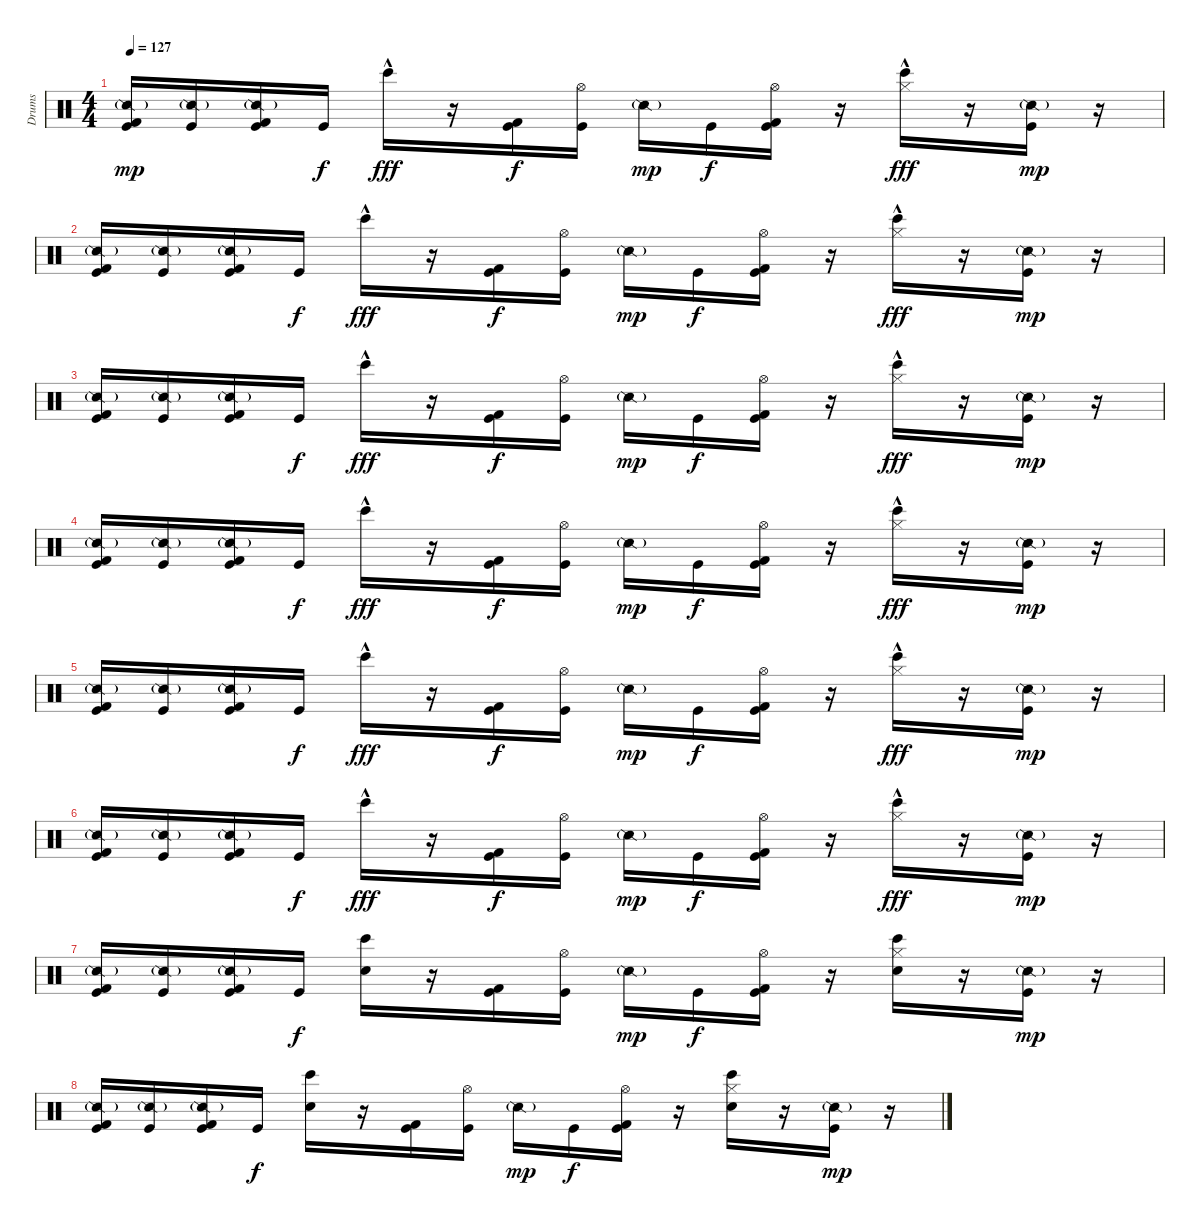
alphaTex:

\track ("Drums" "Drums") {instrument percussion}
\staff {score}
\articulation defaults
\ts (4 4)
\tempo 127
\clef neutral
\ks c
("Snare (side stick) 2"{g} "Kick (hit) 2" "Kick (hit)").16{dy mp} ("Snare (side stick) 2"{g} "Kick (hit)").16 ("Snare (side stick) 2"{g} "Kick (hit) 2" "Kick (hit)").16 "Kick (hit)".16{dy f} "Bongo High (hit)"{hac}.16{dy fff} r.16 ("Kick (hit) 2" "Kick (hit)").16{dy f} ("Hi-Hat (open)" "Kick (hit)").16 "Snare (side stick) 2"{g}.16{dy mp} "Kick (hit)".16{dy f} ("Hi-Hat (open)" "Kick (hit) 2" "Kick (hit)").16 r.16 ("Hi-Hat (closed)" "Bongo High (hit)"{hac}).16{dy fff} r.16 ("Snare (side stick) 2"{g} "Kick (hit)").16{dy mp} r.16 |
("Snare (side stick) 2"{g} "Kick (hit) 2" "Kick (hit)").16 ("Snare (side stick) 2"{g} "Kick (hit)").16 ("Snare (side stick) 2"{g} "Kick (hit) 2" "Kick (hit)").16 "Kick (hit)".16{dy f} "Bongo High (hit)"{hac}.16{dy fff} r.16 ("Kick (hit) 2" "Kick (hit)").16{dy f} ("Hi-Hat (open)" "Kick (hit)").16 "Snare (side stick) 2"{g}.16{dy mp} "Kick (hit)".16{dy f} ("Hi-Hat (open)" "Kick (hit) 2" "Kick (hit)").16 r.16 ("Hi-Hat (closed)" "Bongo High (hit)"{hac}).16{dy fff} r.16 ("Snare (side stick) 2"{g} "Kick (hit)").16{dy mp} r.16 |
("Snare (side stick) 2"{g} "Kick (hit) 2" "Kick (hit)").16 ("Snare (side stick) 2"{g} "Kick (hit)").16 ("Snare (side stick) 2"{g} "Kick (hit) 2" "Kick (hit)").16 "Kick (hit)".16{dy f} "Bongo High (hit)"{hac}.16{dy fff} r.16 ("Kick (hit) 2" "Kick (hit)").16{dy f} ("Hi-Hat (open)" "Kick (hit)").16 "Snare (side stick) 2"{g}.16{dy mp} "Kick (hit)".16{dy f} ("Hi-Hat (open)" "Kick (hit) 2" "Kick (hit)").16 r.16 ("Hi-Hat (closed)" "Bongo High (hit)"{hac}).16{dy fff} r.16 ("Snare (side stick) 2"{g} "Kick (hit)").16{dy mp} r.16 |
("Snare (side stick) 2"{g} "Kick (hit) 2" "Kick (hit)").16 ("Snare (side stick) 2"{g} "Kick (hit)").16 ("Snare (side stick) 2"{g} "Kick (hit) 2" "Kick (hit)").16 "Kick (hit)".16{dy f} "Bongo High (hit)"{hac}.16{dy fff} r.16 ("Kick (hit) 2" "Kick (hit)").16{dy f} ("Hi-Hat (open)" "Kick (hit)").16 "Snare (side stick) 2"{g}.16{dy mp} "Kick (hit)".16{dy f} ("Hi-Hat (open)" "Kick (hit) 2" "Kick (hit)").16 r.16 ("Hi-Hat (closed)" "Bongo High (hit)"{hac}).16{dy fff} r.16 ("Snare (side stick) 2"{g} "Kick (hit)").16{dy mp} r.16 |
("Snare (side stick) 2"{g} "Kick (hit) 2" "Kick (hit)").16 ("Snare (side stick) 2"{g} "Kick (hit)").16 ("Snare (side stick) 2"{g} "Kick (hit) 2" "Kick (hit)").16 "Kick (hit)".16{dy f} "Bongo High (hit)"{hac}.16{dy fff} r.16 ("Kick (hit) 2" "Kick (hit)").16{dy f} ("Hi-Hat (open)" "Kick (hit)").16 "Snare (side stick) 2"{g}.16{dy mp} "Kick (hit)".16{dy f} ("Hi-Hat (open)" "Kick (hit) 2" "Kick (hit)").16 r.16 ("Hi-Hat (closed)" "Bongo High (hit)"{hac}).16{dy fff} r.16 ("Snare (side stick) 2"{g} "Kick (hit)").16{dy mp} r.16 |
("Snare (side stick) 2"{g} "Kick (hit) 2" "Kick (hit)").16 ("Snare (side stick) 2"{g} "Kick (hit)").16 ("Snare (side stick) 2"{g} "Kick (hit) 2" "Kick (hit)").16 "Kick (hit)".16{dy f} "Bongo High (hit)"{hac}.16{dy fff} r.16 ("Kick (hit) 2" "Kick (hit)").16{dy f} ("Hi-Hat (open)" "Kick (hit)").16 "Snare (side stick) 2"{g}.16{dy mp} "Kick (hit)".16{dy f} ("Hi-Hat (open)" "Kick (hit) 2" "Kick (hit)").16 r.16 ("Hi-Hat (closed)" "Bongo High (hit)"{hac}).16{dy fff} r.16 ("Snare (side stick) 2"{g} "Kick (hit)").16{dy mp} r.16 |
("Snare (side stick) 2"{g} "Kick (hit) 2" "Kick (hit)").16 ("Snare (side stick) 2"{g} "Kick (hit)").16 ("Snare (side stick) 2"{g} "Kick (hit) 2" "Kick (hit)").16 "Kick (hit)".16{dy f} ("Snare (hit) 2" "Bongo High (hit)").16 r.16 ("Kick (hit) 2" "Kick (hit)").16 ("Hi-Hat (open)" "Kick (hit)").16 "Snare (side stick) 2"{g}.16{dy mp} "Kick (hit)".16{dy f} ("Hi-Hat (open)" "Kick (hit) 2" "Kick (hit)").16 r.16 ("Hi-Hat (closed)" "Snare (hit) 2" "Bongo High (hit)").16 r.16 ("Snare (side stick) 2"{g} "Kick (hit)").16{dy mp} r.16 |
("Snare (side stick) 2"{g} "Kick (hit) 2" "Kick (hit)").16 ("Snare (side stick) 2"{g} "Kick (hit)").16 ("Snare (side stick) 2"{g} "Kick (hit) 2" "Kick (hit)").16 "Kick (hit)".16{dy f} ("Snare (hit) 2" "Bongo High (hit)").16 r.16 ("Kick (hit) 2" "Kick (hit)").16 ("Hi-Hat (open)" "Kick (hit)").16 "Snare (side stick) 2"{g}.16{dy mp} "Kick (hit)".16{dy f} ("Hi-Hat (open)" "Kick (hit) 2" "Kick (hit)").16 r.16 ("Hi-Hat (closed)" "Snare (hit) 2" "Bongo High (hit)").16 r.16 ("Snare (side stick) 2"{g} "Kick (hit)").16{dy mp} r.16
